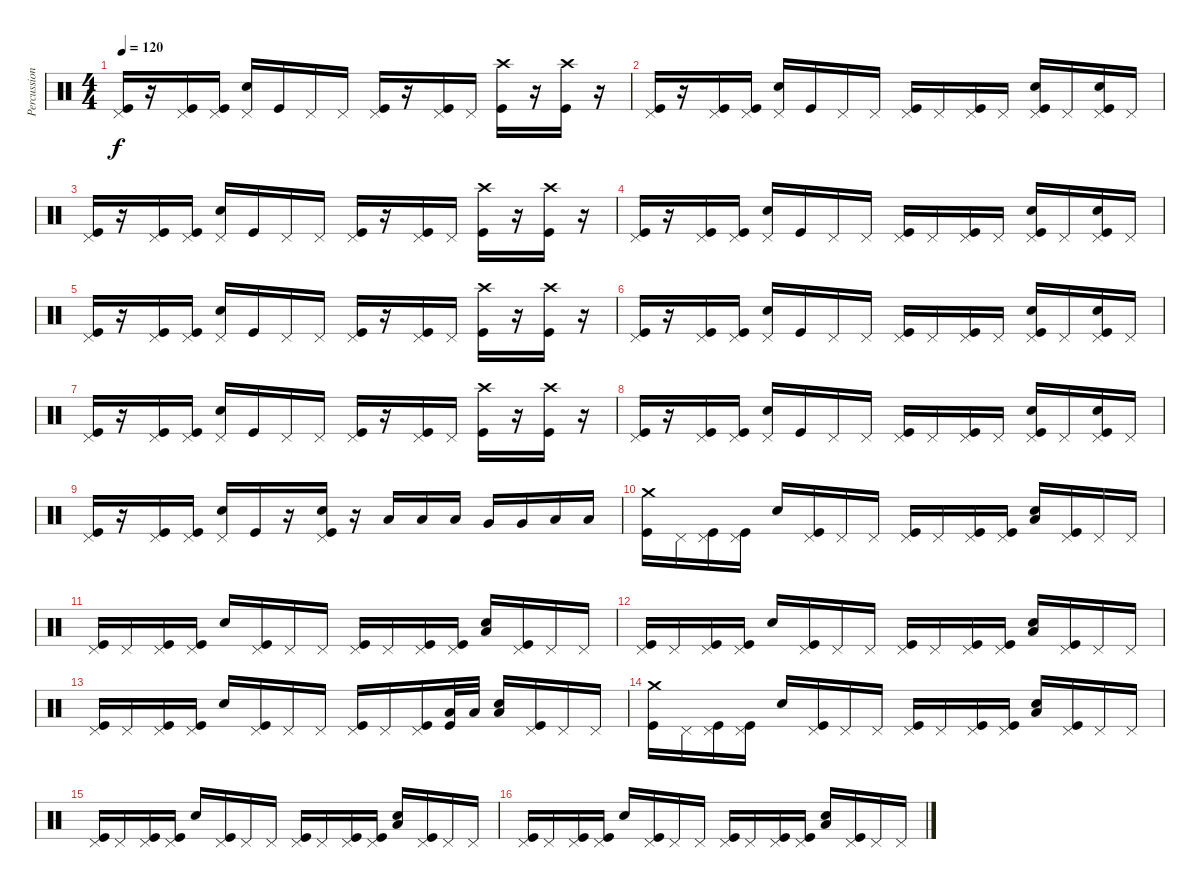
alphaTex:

\track ("Percussion" "Percussion") {instrument percussion}
\staff {score}
\articulation defaults
\ts (4 4)
\tempo 120
\clef neutral
\ks c
("Kick (hit)" "Pedal Hi-Hat (hit)").16{dy f} r.16 ("Kick (hit)" "Pedal Hi-Hat (hit)").16 ("Kick (hit)" "Pedal Hi-Hat (hit)").16 ("Electric Snare (hit)" "Pedal Hi-Hat (hit)").16 "Kick (hit)".16 "Pedal Hi-Hat (hit)".16 "Pedal Hi-Hat (hit)".16 ("Kick (hit)" "Pedal Hi-Hat (hit)").16 r.16 ("Kick (hit)" "Pedal Hi-Hat (hit)").16 "Pedal Hi-Hat (hit)".16 ("Kick (hit)" "Crash high (hit)").16 r.16 ("Kick (hit)" "Crash high (hit)").16 r.16 |
("Kick (hit)" "Pedal Hi-Hat (hit)").16 r.16 ("Kick (hit)" "Pedal Hi-Hat (hit)").16 ("Kick (hit)" "Pedal Hi-Hat (hit)").16 ("Electric Snare (hit)" "Pedal Hi-Hat (hit)").16 "Kick (hit)".16 "Pedal Hi-Hat (hit)".16 "Pedal Hi-Hat (hit)".16 ("Kick (hit)" "Pedal Hi-Hat (hit)").16 "Pedal Hi-Hat (hit)".16 ("Kick (hit)" "Pedal Hi-Hat (hit)").16 "Pedal Hi-Hat (hit)".16 ("Kick (hit)" "Electric Snare (hit)" "Pedal Hi-Hat (hit)").16 "Pedal Hi-Hat (hit)".16 ("Kick (hit)" "Electric Snare (hit)" "Pedal Hi-Hat (hit)").16 "Pedal Hi-Hat (hit)".16 |
("Kick (hit)" "Pedal Hi-Hat (hit)").16 r.16 ("Kick (hit)" "Pedal Hi-Hat (hit)").16 ("Kick (hit)" "Pedal Hi-Hat (hit)").16 ("Electric Snare (hit)" "Pedal Hi-Hat (hit)").16 "Kick (hit)".16 "Pedal Hi-Hat (hit)".16 "Pedal Hi-Hat (hit)".16 ("Kick (hit)" "Pedal Hi-Hat (hit)").16 r.16 ("Kick (hit)" "Pedal Hi-Hat (hit)").16 "Pedal Hi-Hat (hit)".16 ("Kick (hit)" "Crash high (hit)").16 r.16 ("Kick (hit)" "Crash high (hit)").16 r.16 |
("Kick (hit)" "Pedal Hi-Hat (hit)").16 r.16 ("Kick (hit)" "Pedal Hi-Hat (hit)").16 ("Kick (hit)" "Pedal Hi-Hat (hit)").16 ("Electric Snare (hit)" "Pedal Hi-Hat (hit)").16 "Kick (hit)".16 "Pedal Hi-Hat (hit)".16 "Pedal Hi-Hat (hit)".16 ("Kick (hit)" "Pedal Hi-Hat (hit)").16 "Pedal Hi-Hat (hit)".16 ("Kick (hit)" "Pedal Hi-Hat (hit)").16 "Pedal Hi-Hat (hit)".16 ("Kick (hit)" "Electric Snare (hit)" "Pedal Hi-Hat (hit)").16 "Pedal Hi-Hat (hit)".16 ("Kick (hit)" "Electric Snare (hit)" "Pedal Hi-Hat (hit)").16 "Pedal Hi-Hat (hit)".16 |
("Kick (hit)" "Pedal Hi-Hat (hit)").16 r.16 ("Kick (hit)" "Pedal Hi-Hat (hit)").16 ("Kick (hit)" "Pedal Hi-Hat (hit)").16 ("Electric Snare (hit)" "Pedal Hi-Hat (hit)").16 "Kick (hit)".16 "Pedal Hi-Hat (hit)".16 "Pedal Hi-Hat (hit)".16 ("Kick (hit)" "Pedal Hi-Hat (hit)").16 r.16 ("Kick (hit)" "Pedal Hi-Hat (hit)").16 "Pedal Hi-Hat (hit)".16 ("Kick (hit)" "Crash high (hit)").16 r.16 ("Kick (hit)" "Crash high (hit)").16 r.16 |
("Kick (hit)" "Pedal Hi-Hat (hit)").16 r.16 ("Kick (hit)" "Pedal Hi-Hat (hit)").16 ("Kick (hit)" "Pedal Hi-Hat (hit)").16 ("Electric Snare (hit)" "Pedal Hi-Hat (hit)").16 "Kick (hit)".16 "Pedal Hi-Hat (hit)".16 "Pedal Hi-Hat (hit)".16 ("Kick (hit)" "Pedal Hi-Hat (hit)").16 "Pedal Hi-Hat (hit)".16 ("Kick (hit)" "Pedal Hi-Hat (hit)").16 "Pedal Hi-Hat (hit)".16 ("Kick (hit)" "Electric Snare (hit)" "Pedal Hi-Hat (hit)").16 "Pedal Hi-Hat (hit)".16 ("Kick (hit)" "Electric Snare (hit)" "Pedal Hi-Hat (hit)").16 "Pedal Hi-Hat (hit)".16 |
("Kick (hit)" "Pedal Hi-Hat (hit)").16 r.16 ("Kick (hit)" "Pedal Hi-Hat (hit)").16 ("Kick (hit)" "Pedal Hi-Hat (hit)").16 ("Electric Snare (hit)" "Pedal Hi-Hat (hit)").16 "Kick (hit)".16 "Pedal Hi-Hat (hit)".16 "Pedal Hi-Hat (hit)".16 ("Kick (hit)" "Pedal Hi-Hat (hit)").16 r.16 ("Kick (hit)" "Pedal Hi-Hat (hit)").16 "Pedal Hi-Hat (hit)".16 ("Kick (hit)" "Crash high (hit)").16 r.16 ("Kick (hit)" "Crash high (hit)").16 r.16 |
("Kick (hit)" "Pedal Hi-Hat (hit)").16 r.16 ("Kick (hit)" "Pedal Hi-Hat (hit)").16 ("Kick (hit)" "Pedal Hi-Hat (hit)").16 ("Electric Snare (hit)" "Pedal Hi-Hat (hit)").16 "Kick (hit)".16 "Pedal Hi-Hat (hit)".16 "Pedal Hi-Hat (hit)".16 ("Kick (hit)" "Pedal Hi-Hat (hit)").16 "Pedal Hi-Hat (hit)".16 ("Kick (hit)" "Pedal Hi-Hat (hit)").16 "Pedal Hi-Hat (hit)".16 ("Kick (hit)" "Electric Snare (hit)" "Pedal Hi-Hat (hit)").16 "Pedal Hi-Hat (hit)".16 ("Kick (hit)" "Electric Snare (hit)" "Pedal Hi-Hat (hit)").16 "Pedal Hi-Hat (hit)".16 |
("Kick (hit)" "Pedal Hi-Hat (hit)").16 r.16 ("Kick (hit)" "Pedal Hi-Hat (hit)").16 ("Kick (hit)" "Pedal Hi-Hat (hit)").16 ("Electric Snare (hit)" "Pedal Hi-Hat (hit)").16 "Kick (hit)".16 r.16 ("Kick (hit)" "Electric Snare (hit)" "Pedal Hi-Hat (hit)").16 r.16 "Low Tom (hit)".16 "Low Tom (hit)".16 "Low Tom (hit)".16 "Very Low Tom (hit)".16 "Very Low Tom (hit)".16 "Low Floor Tom (hit)".16 "Low Floor Tom (hit)".16 |
("Kick (hit)" "Crash medium (hit)").16 "Pedal Hi-Hat (hit)".16 ("Kick (hit)" "Pedal Hi-Hat (hit)").16 ("Kick (hit)" "Pedal Hi-Hat (hit)").16 "Electric Snare (hit)".16 ("Kick (hit)" "Pedal Hi-Hat (hit)").16 "Pedal Hi-Hat (hit)".16 "Pedal Hi-Hat (hit)".16 ("Kick (hit)" "Pedal Hi-Hat (hit)").16 "Pedal Hi-Hat (hit)".16 ("Kick (hit)" "Pedal Hi-Hat (hit)").16 ("Kick (hit)" "Pedal Hi-Hat (hit)").16 ("Electric Snare (hit)" "Low Floor Tom (hit)").16 ("Kick (hit)" "Pedal Hi-Hat (hit)").16 "Pedal Hi-Hat (hit)".16 "Pedal Hi-Hat (hit)".16 |
("Kick (hit)" "Pedal Hi-Hat (hit)").16 "Pedal Hi-Hat (hit)".16 ("Kick (hit)" "Pedal Hi-Hat (hit)").16 ("Kick (hit)" "Pedal Hi-Hat (hit)").16 "Electric Snare (hit)".16 ("Kick (hit)" "Pedal Hi-Hat (hit)").16 "Pedal Hi-Hat (hit)".16 "Pedal Hi-Hat (hit)".16 ("Kick (hit)" "Pedal Hi-Hat (hit)").16 "Pedal Hi-Hat (hit)".16 ("Kick (hit)" "Pedal Hi-Hat (hit)").16 ("Kick (hit)" "Pedal Hi-Hat (hit)").16 ("Electric Snare (hit)" "Low Floor Tom (hit)").16 ("Kick (hit)" "Pedal Hi-Hat (hit)").16 "Pedal Hi-Hat (hit)".16 "Pedal Hi-Hat (hit)".16 |
("Kick (hit)" "Pedal Hi-Hat (hit)").16 "Pedal Hi-Hat (hit)".16 ("Kick (hit)" "Pedal Hi-Hat (hit)").16 ("Kick (hit)" "Pedal Hi-Hat (hit)").16 "Electric Snare (hit)".16 ("Kick (hit)" "Pedal Hi-Hat (hit)").16 "Pedal Hi-Hat (hit)".16 "Pedal Hi-Hat (hit)".16 ("Kick (hit)" "Pedal Hi-Hat (hit)").16 "Pedal Hi-Hat (hit)".16 ("Kick (hit)" "Pedal Hi-Hat (hit)").16 ("Kick (hit)" "Pedal Hi-Hat (hit)").16 ("Electric Snare (hit)" "Low Floor Tom (hit)").16 ("Kick (hit)" "Pedal Hi-Hat (hit)").16 "Pedal Hi-Hat (hit)".16 "Pedal Hi-Hat (hit)".16 |
("Kick (hit)" "Pedal Hi-Hat (hit)").16 "Pedal Hi-Hat (hit)".16 ("Kick (hit)" "Pedal Hi-Hat (hit)").16 ("Kick (hit)" "Pedal Hi-Hat (hit)").16 "Electric Snare (hit)".16 ("Kick (hit)" "Pedal Hi-Hat (hit)").16 "Pedal Hi-Hat (hit)".16 "Pedal Hi-Hat (hit)".16 ("Kick (hit)" "Pedal Hi-Hat (hit)").16 "Pedal Hi-Hat (hit)".16 ("Kick (hit)" "Pedal Hi-Hat (hit)").16 ("Kick (hit)" "Low Floor Tom (hit)").32 "Low Floor Tom (hit)".32 ("Electric Snare (hit)" "Low Floor Tom (hit)").16 ("Kick (hit)" "Pedal Hi-Hat (hit)").16 "Pedal Hi-Hat (hit)".16 "Pedal Hi-Hat (hit)".16 |
("Kick (hit)" "Crash medium (hit)").16 "Pedal Hi-Hat (hit)".16 ("Kick (hit)" "Pedal Hi-Hat (hit)").16 ("Kick (hit)" "Pedal Hi-Hat (hit)").16 "Electric Snare (hit)".16 ("Kick (hit)" "Pedal Hi-Hat (hit)").16 "Pedal Hi-Hat (hit)".16 "Pedal Hi-Hat (hit)".16 ("Kick (hit)" "Pedal Hi-Hat (hit)").16 "Pedal Hi-Hat (hit)".16 ("Kick (hit)" "Pedal Hi-Hat (hit)").16 ("Kick (hit)" "Pedal Hi-Hat (hit)").16 ("Electric Snare (hit)" "Low Floor Tom (hit)").16 ("Kick (hit)" "Pedal Hi-Hat (hit)").16 "Pedal Hi-Hat (hit)".16 "Pedal Hi-Hat (hit)".16 |
("Kick (hit)" "Pedal Hi-Hat (hit)").16 "Pedal Hi-Hat (hit)".16 ("Kick (hit)" "Pedal Hi-Hat (hit)").16 ("Kick (hit)" "Pedal Hi-Hat (hit)").16 "Electric Snare (hit)".16 ("Kick (hit)" "Pedal Hi-Hat (hit)").16 "Pedal Hi-Hat (hit)".16 "Pedal Hi-Hat (hit)".16 ("Kick (hit)" "Pedal Hi-Hat (hit)").16 "Pedal Hi-Hat (hit)".16 ("Kick (hit)" "Pedal Hi-Hat (hit)").16 ("Kick (hit)" "Pedal Hi-Hat (hit)").16 ("Electric Snare (hit)" "Low Floor Tom (hit)").16 ("Kick (hit)" "Pedal Hi-Hat (hit)").16 "Pedal Hi-Hat (hit)".16 "Pedal Hi-Hat (hit)".16 |
("Kick (hit)" "Pedal Hi-Hat (hit)").16 "Pedal Hi-Hat (hit)".16 ("Kick (hit)" "Pedal Hi-Hat (hit)").16 ("Kick (hit)" "Pedal Hi-Hat (hit)").16 "Electric Snare (hit)".16 ("Kick (hit)" "Pedal Hi-Hat (hit)").16 "Pedal Hi-Hat (hit)".16 "Pedal Hi-Hat (hit)".16 ("Kick (hit)" "Pedal Hi-Hat (hit)").16 "Pedal Hi-Hat (hit)".16 ("Kick (hit)" "Pedal Hi-Hat (hit)").16 ("Kick (hit)" "Pedal Hi-Hat (hit)").16 ("Electric Snare (hit)" "Low Floor Tom (hit)").16 ("Kick (hit)" "Pedal Hi-Hat (hit)").16 "Pedal Hi-Hat (hit)".16 "Pedal Hi-Hat (hit)".16
